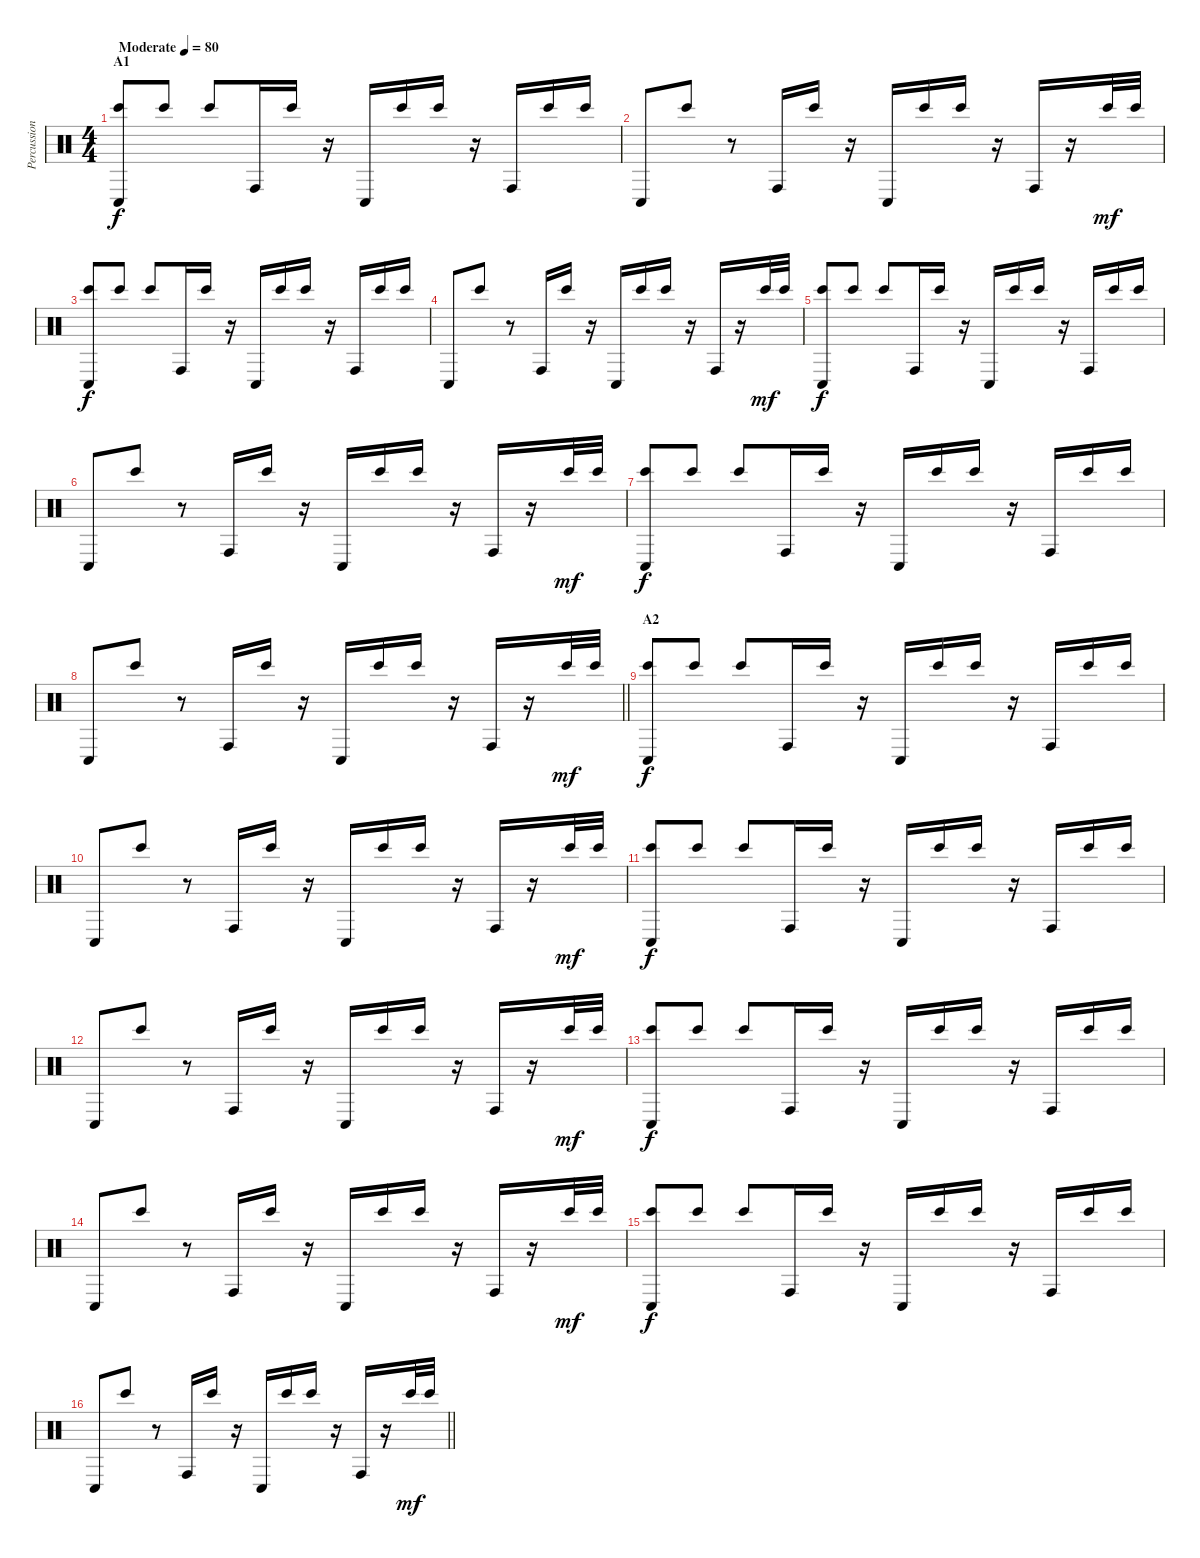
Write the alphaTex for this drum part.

\track ("Percussion" "Percussion") {instrument percussion}
\staff {score}
\articulation defaults
\ts (4 4)
\section ("" "A1")
\tempo (80 "Moderate")
\clef neutral
\ks c
("Conga low (hit)" "Bongo High (hit)").8{dy f} "Bongo High (hit)".8 "Bongo High (hit)".8 "Conga high (hit)".16 "Bongo High (hit)".16 r.16 "Conga low (hit)".16 "Bongo High (hit)".16 "Bongo High (hit)".16 r.16 "Conga high (hit)".16 "Bongo High (hit)".16 "Bongo High (hit)".16 |
"Conga low (hit)".8 "Bongo High (hit)".8 r.8 "Conga high (hit)".16 "Bongo High (hit)".16 r.16 "Conga low (hit)".16 "Bongo High (hit)".16 "Bongo High (hit)".16 r.16 "Conga high (hit)".16 r.16 "Bongo High (hit)".32{dy mf} "Bongo High (hit)".32 |
("Conga low (hit)" "Bongo High (hit)").8{dy f} "Bongo High (hit)".8 "Bongo High (hit)".8 "Conga high (hit)".16 "Bongo High (hit)".16 r.16 "Conga low (hit)".16 "Bongo High (hit)".16 "Bongo High (hit)".16 r.16 "Conga high (hit)".16 "Bongo High (hit)".16 "Bongo High (hit)".16 |
"Conga low (hit)".8 "Bongo High (hit)".8 r.8 "Conga high (hit)".16 "Bongo High (hit)".16 r.16 "Conga low (hit)".16 "Bongo High (hit)".16 "Bongo High (hit)".16 r.16 "Conga high (hit)".16 r.16 "Bongo High (hit)".32{dy mf} "Bongo High (hit)".32 |
("Conga low (hit)" "Bongo High (hit)").8{dy f} "Bongo High (hit)".8 "Bongo High (hit)".8 "Conga high (hit)".16 "Bongo High (hit)".16 r.16 "Conga low (hit)".16 "Bongo High (hit)".16 "Bongo High (hit)".16 r.16 "Conga high (hit)".16 "Bongo High (hit)".16 "Bongo High (hit)".16 |
"Conga low (hit)".8 "Bongo High (hit)".8 r.8 "Conga high (hit)".16 "Bongo High (hit)".16 r.16 "Conga low (hit)".16 "Bongo High (hit)".16 "Bongo High (hit)".16 r.16 "Conga high (hit)".16 r.16 "Bongo High (hit)".32{dy mf} "Bongo High (hit)".32 |
("Conga low (hit)" "Bongo High (hit)").8{dy f} "Bongo High (hit)".8 "Bongo High (hit)".8 "Conga high (hit)".16 "Bongo High (hit)".16 r.16 "Conga low (hit)".16 "Bongo High (hit)".16 "Bongo High (hit)".16 r.16 "Conga high (hit)".16 "Bongo High (hit)".16 "Bongo High (hit)".16 |
\barLineRight lightlight "Conga low (hit)".8 "Bongo High (hit)".8
r.8 "Conga high (hit)".16 "Bongo High (hit)".16 r.16 "Conga low (hit)".16 "Bongo High (hit)".16 "Bongo High (hit)".16 r.16 "Conga high (hit)".16 r.16 "Bongo High (hit)".32{dy mf} "Bongo High (hit)".32 |
\section ("" "A2")
("Conga low (hit)" "Bongo High (hit)").8{dy f} "Bongo High (hit)".8 "Bongo High (hit)".8 "Conga high (hit)".16 "Bongo High (hit)".16 r.16 "Conga low (hit)".16 "Bongo High (hit)".16 "Bongo High (hit)".16 r.16 "Conga high (hit)".16 "Bongo High (hit)".16 "Bongo High (hit)".16 |
"Conga low (hit)".8 "Bongo High (hit)".8 r.8 "Conga high (hit)".16 "Bongo High (hit)".16 r.16 "Conga low (hit)".16 "Bongo High (hit)".16 "Bongo High (hit)".16 r.16 "Conga high (hit)".16 r.16 "Bongo High (hit)".32{dy mf} "Bongo High (hit)".32 |
("Conga low (hit)" "Bongo High (hit)").8{dy f} "Bongo High (hit)".8 "Bongo High (hit)".8 "Conga high (hit)".16 "Bongo High (hit)".16 r.16 "Conga low (hit)".16 "Bongo High (hit)".16 "Bongo High (hit)".16 r.16 "Conga high (hit)".16 "Bongo High (hit)".16 "Bongo High (hit)".16 |
"Conga low (hit)".8 "Bongo High (hit)".8 r.8 "Conga high (hit)".16 "Bongo High (hit)".16 r.16 "Conga low (hit)".16 "Bongo High (hit)".16 "Bongo High (hit)".16 r.16 "Conga high (hit)".16 r.16 "Bongo High (hit)".32{dy mf} "Bongo High (hit)".32 |
("Conga low (hit)" "Bongo High (hit)").8{dy f} "Bongo High (hit)".8 "Bongo High (hit)".8 "Conga high (hit)".16 "Bongo High (hit)".16 r.16 "Conga low (hit)".16 "Bongo High (hit)".16 "Bongo High (hit)".16 r.16 "Conga high (hit)".16 "Bongo High (hit)".16 "Bongo High (hit)".16 |
"Conga low (hit)".8 "Bongo High (hit)".8 r.8 "Conga high (hit)".16 "Bongo High (hit)".16 r.16 "Conga low (hit)".16 "Bongo High (hit)".16 "Bongo High (hit)".16 r.16 "Conga high (hit)".16 r.16 "Bongo High (hit)".32{dy mf} "Bongo High (hit)".32 |
("Conga low (hit)" "Bongo High (hit)").8{dy f} "Bongo High (hit)".8 "Bongo High (hit)".8 "Conga high (hit)".16 "Bongo High (hit)".16 r.16 "Conga low (hit)".16 "Bongo High (hit)".16 "Bongo High (hit)".16 r.16 "Conga high (hit)".16 "Bongo High (hit)".16 "Bongo High (hit)".16 |
\barLineRight lightlight "Conga low (hit)".8 "Bongo High (hit)".8
r.8 "Conga high (hit)".16 "Bongo High (hit)".16 r.16 "Conga low (hit)".16 "Bongo High (hit)".16 "Bongo High (hit)".16 r.16 "Conga high (hit)".16 r.16 "Bongo High (hit)".32{dy mf} "Bongo High (hit)".32
